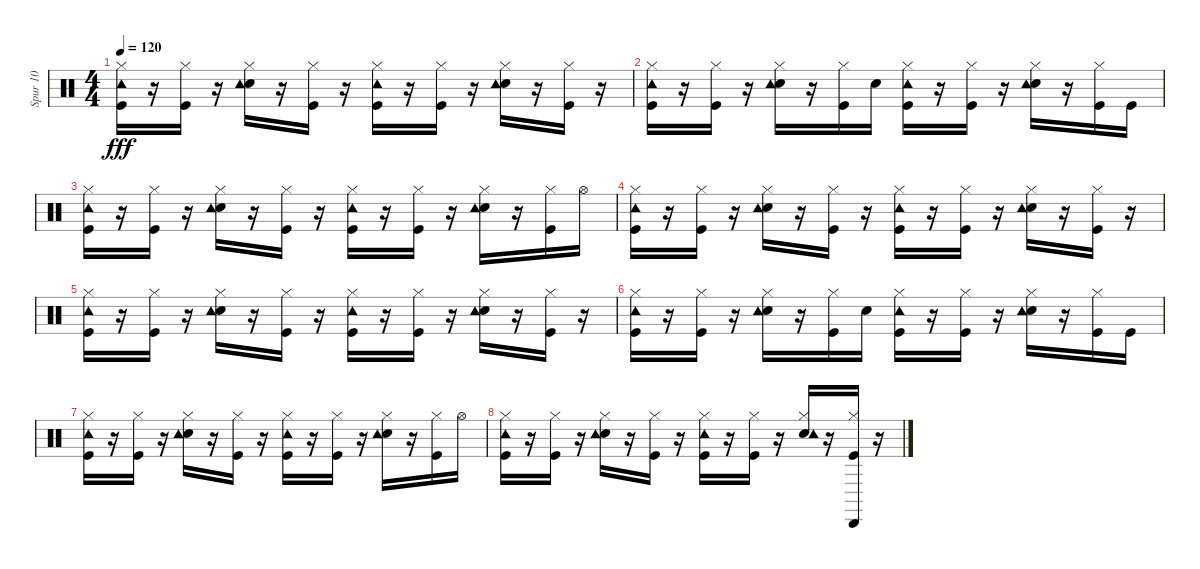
\track ("Spur 10" "Spur 10") {instrument percussion}
\staff {score}
\articulation defaults
\ts (4 4)
\tempo 120
\clef neutral
\ks c
("Kick (hit)" "Hi-Hat (closed)" "Tambourine (hit)").16{dy fff} r.16 ("Kick (hit)" "Hi-Hat (closed)").16 r.16 ("Snare (hit) 2" "Hi-Hat (closed)" "Tambourine (hit)").16 r.16 ("Kick (hit)" "Hi-Hat (closed)").16 r.16 ("Kick (hit)" "Hi-Hat (closed)" "Tambourine (hit)").16 r.16 ("Kick (hit)" "Hi-Hat (closed)").16 r.16 ("Snare (hit) 2" "Hi-Hat (closed)" "Tambourine (hit)").16 r.16 ("Kick (hit)" "Hi-Hat (closed)").16 r.16 |
("Kick (hit)" "Hi-Hat (closed)" "Tambourine (hit)").16 r.16 ("Kick (hit)" "Hi-Hat (closed)").16 r.16 ("Snare (hit) 2" "Hi-Hat (closed)" "Tambourine (hit)").16 r.16 ("Kick (hit)" "Hi-Hat (closed)").16 "Snare (hit) 2".16 ("Kick (hit)" "Hi-Hat (closed)" "Tambourine (hit)").16 r.16 ("Kick (hit)" "Hi-Hat (closed)").16 r.16 ("Snare (hit) 2" "Hi-Hat (closed)" "Tambourine (hit)").16 r.16 ("Kick (hit)" "Hi-Hat (closed)").16 "Kick (hit)".16 |
("Kick (hit)" "Hi-Hat (closed)" "Tambourine (hit)").16 r.16 ("Kick (hit)" "Hi-Hat (closed)").16 r.16 ("Snare (hit) 2" "Hi-Hat (closed)" "Tambourine (hit)").16 r.16 ("Kick (hit)" "Hi-Hat (closed)").16 r.16 ("Kick (hit)" "Hi-Hat (closed)" "Tambourine (hit)").16 r.16 ("Kick (hit)" "Hi-Hat (closed)").16 r.16 ("Snare (hit) 2" "Hi-Hat (closed)" "Tambourine (hit)").16 r.16 ("Kick (hit)" "Hi-Hat (closed)").16 "Hi-Hat (open)".16 |
("Kick (hit)" "Hi-Hat (closed)" "Tambourine (hit)").16 r.16 ("Kick (hit)" "Hi-Hat (closed)").16 r.16 ("Snare (hit) 2" "Hi-Hat (closed)" "Tambourine (hit)").16 r.16 ("Kick (hit)" "Hi-Hat (closed)").16 r.16 ("Kick (hit)" "Hi-Hat (closed)" "Tambourine (hit)").16 r.16 ("Kick (hit)" "Hi-Hat (closed)").16 r.16 ("Snare (hit) 2" "Hi-Hat (closed)" "Tambourine (hit)").16 r.16 ("Kick (hit)" "Hi-Hat (closed)").16 r.16 |
("Kick (hit)" "Hi-Hat (closed)" "Tambourine (hit)").16 r.16 ("Kick (hit)" "Hi-Hat (closed)").16 r.16 ("Snare (hit) 2" "Hi-Hat (closed)" "Tambourine (hit)").16 r.16 ("Kick (hit)" "Hi-Hat (closed)").16 r.16 ("Kick (hit)" "Hi-Hat (closed)" "Tambourine (hit)").16 r.16 ("Kick (hit)" "Hi-Hat (closed)").16 r.16 ("Snare (hit) 2" "Hi-Hat (closed)" "Tambourine (hit)").16 r.16 ("Kick (hit)" "Hi-Hat (closed)").16 r.16 |
("Kick (hit)" "Hi-Hat (closed)" "Tambourine (hit)").16 r.16 ("Kick (hit)" "Hi-Hat (closed)").16 r.16 ("Snare (hit) 2" "Hi-Hat (closed)" "Tambourine (hit)").16 r.16 ("Kick (hit)" "Hi-Hat (closed)").16 "Snare (hit) 2".16 ("Kick (hit)" "Hi-Hat (closed)" "Tambourine (hit)").16 r.16 ("Kick (hit)" "Hi-Hat (closed)").16 r.16 ("Snare (hit) 2" "Hi-Hat (closed)" "Tambourine (hit)").16 r.16 ("Kick (hit)" "Hi-Hat (closed)").16 "Kick (hit)".16 |
("Kick (hit)" "Hi-Hat (closed)" "Tambourine (hit)").16 r.16 ("Kick (hit)" "Hi-Hat (closed)").16 r.16 ("Snare (hit) 2" "Hi-Hat (closed)" "Tambourine (hit)").16 r.16 ("Kick (hit)" "Hi-Hat (closed)").16 r.16 ("Kick (hit)" "Hi-Hat (closed)" "Tambourine (hit)").16 r.16 ("Kick (hit)" "Hi-Hat (closed)").16 r.16 ("Snare (hit) 2" "Hi-Hat (closed)" "Tambourine (hit)").16 r.16 ("Kick (hit)" "Hi-Hat (closed)").16 "Hi-Hat (open)".16 |
("Kick (hit)" "Hi-Hat (closed)" "Tambourine (hit)").16 r.16 ("Kick (hit)" "Hi-Hat (closed)").16 r.16 ("Snare (hit) 2" "Hi-Hat (closed)" "Tambourine (hit)").16 r.16 ("Kick (hit)" "Hi-Hat (closed)").16 r.16 ("Kick (hit)" "Hi-Hat (closed)" "Tambourine (hit)").16 r.16 ("Kick (hit)" "Hi-Hat (closed)").16 r.16 ("Snare (hit) 2" "Hi-Hat (closed)" "Tambourine (hit)").16 r.16 ("Kick (hit)" "Hi-Hat (closed)" "Cabasa (hit)").16 r.16
